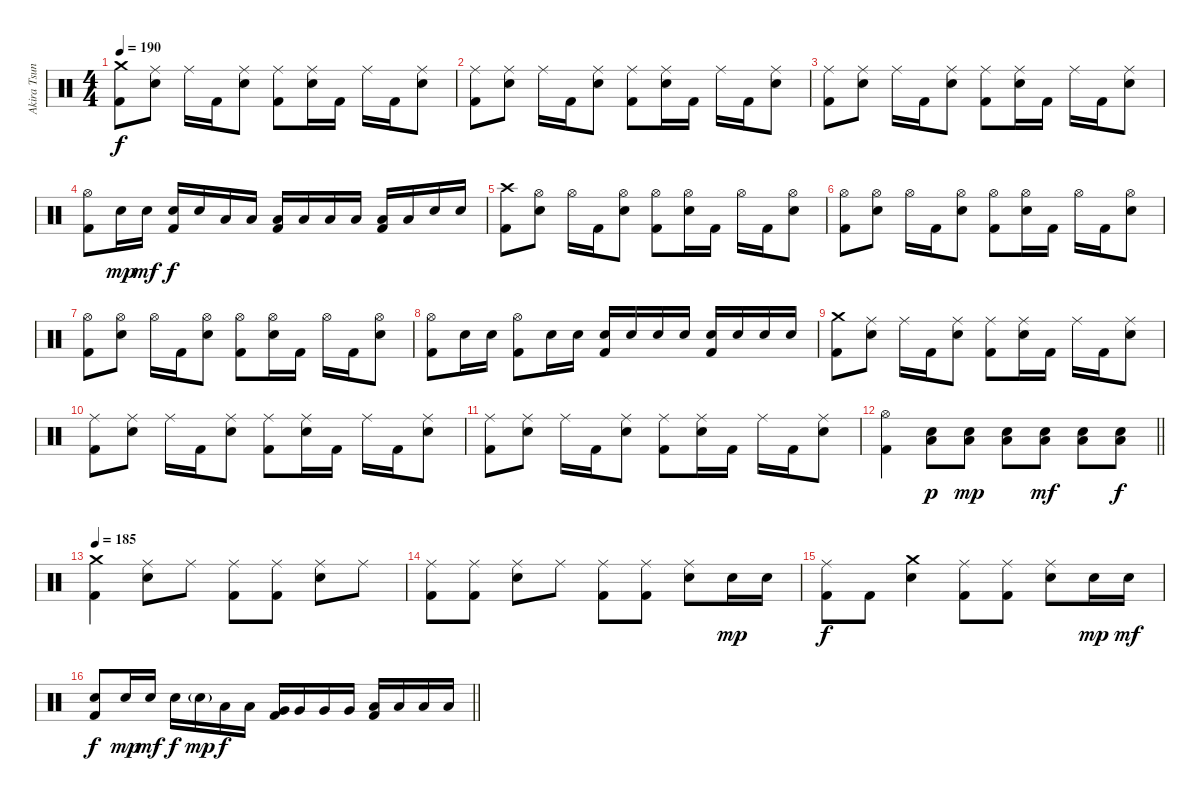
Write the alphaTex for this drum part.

\track ("Akira Tsuneoka" "Akira Tsun") {instrument percussion}
\staff {score}
\articulation defaults
\ts (4 4)
\tempo 190
\clef neutral
\ks c
("Crash medium (hit)" "Kick (hit) 2").8{dy f} ("Ride (middle)" "Electric Snare (hit)").8 "Ride (middle)".16 "Kick (hit) 2".16 ("Ride (middle)" "Electric Snare (hit)").8 ("Ride (middle)" "Kick (hit) 2").8 ("Ride (middle)" "Electric Snare (hit)").16 "Kick (hit) 2".16 "Ride (middle)".16 "Kick (hit) 2".16 ("Ride (middle)" "Electric Snare (hit)").8 |
("Ride (middle)" "Kick (hit) 2").8 ("Ride (middle)" "Electric Snare (hit)").8 "Ride (middle)".16 "Kick (hit) 2".16 ("Ride (middle)" "Electric Snare (hit)").8 ("Ride (middle)" "Kick (hit) 2").8 ("Ride (middle)" "Electric Snare (hit)").16 "Kick (hit) 2".16 "Ride (middle)".16 "Kick (hit) 2".16 ("Ride (middle)" "Electric Snare (hit)").8 |
("Ride (middle)" "Kick (hit) 2").8 ("Ride (middle)" "Electric Snare (hit)").8 "Ride (middle)".16 "Kick (hit) 2".16 ("Ride (middle)" "Electric Snare (hit)").8 ("Ride (middle)" "Kick (hit) 2").8 ("Ride (middle)" "Electric Snare (hit)").16 "Kick (hit) 2".16 "Ride (middle)".16 "Kick (hit) 2".16 ("Ride (middle)" "Electric Snare (hit)").8 |
("Hi-Hat (open)" "Kick (hit) 2").8 "Electric Snare (hit)".16{dy mp} "Electric Snare (hit)".16{dy mf} ("Electric Snare (hit)" "Kick (hit) 2").16{dy f} "Electric Snare (hit)".16 "Low Tom (hit)".16 "Low Tom (hit)".16 ("Low Tom (hit)" "Kick (hit) 2").16 "Low Tom (hit)".16 "Low Tom (hit)".16 "Low Tom (hit)".16 ("Low Floor Tom (hit)" "Kick (hit) 2").16 "Low Floor Tom (hit)".16 "Electric Snare (hit)".16 "Electric Snare (hit)".16 |
("Crash high (hit)" "Kick (hit) 2").8 ("Hi-Hat (open)" "Electric Snare (hit)").8 "Hi-Hat (open)".16 "Kick (hit) 2".16 ("Hi-Hat (open)" "Electric Snare (hit)").8 ("Hi-Hat (open)" "Kick (hit) 2").8 ("Hi-Hat (open)" "Electric Snare (hit)").16 "Kick (hit) 2".16 "Hi-Hat (open)".16 "Kick (hit) 2".16 ("Hi-Hat (open)" "Electric Snare (hit)").8 |
("Hi-Hat (open)" "Kick (hit) 2").8 ("Hi-Hat (open)" "Electric Snare (hit)").8 "Hi-Hat (open)".16 "Kick (hit) 2".16 ("Hi-Hat (open)" "Electric Snare (hit)").8 ("Hi-Hat (open)" "Kick (hit) 2").8 ("Hi-Hat (open)" "Electric Snare (hit)").16 "Kick (hit) 2".16 "Hi-Hat (open)".16 "Kick (hit) 2".16 ("Hi-Hat (open)" "Electric Snare (hit)").8 |
("Hi-Hat (open)" "Kick (hit) 2").8 ("Hi-Hat (open)" "Electric Snare (hit)").8 "Hi-Hat (open)".16 "Kick (hit) 2".16 ("Hi-Hat (open)" "Electric Snare (hit)").8 ("Hi-Hat (open)" "Kick (hit) 2").8 ("Hi-Hat (open)" "Electric Snare (hit)").16 "Kick (hit) 2".16 "Hi-Hat (open)".16 "Kick (hit) 2".16 ("Hi-Hat (open)" "Electric Snare (hit)").8 |
("Hi-Hat (open)" "Kick (hit) 2").8 "Electric Snare (hit)".16 "Electric Snare (hit)".16 ("Hi-Hat (open)" "Kick (hit) 2").8 "Electric Snare (hit)".16 "Electric Snare (hit)".16 ("Electric Snare (hit)" "Kick (hit) 2").16 "Electric Snare (hit)".16 "Electric Snare (hit)".16 "Electric Snare (hit)".16 ("Electric Snare (hit)" "Kick (hit) 2").16 "Electric Snare (hit)".16 "Electric Snare (hit)".16 "Electric Snare (hit)".16 |
("Crash medium (hit)" "Kick (hit) 2").8 ("Ride (middle)" "Electric Snare (hit)").8 "Ride (middle)".16 "Kick (hit) 2".16 ("Ride (middle)" "Electric Snare (hit)").8 ("Ride (middle)" "Kick (hit) 2").8 ("Ride (middle)" "Electric Snare (hit)").16 "Kick (hit) 2".16 "Ride (middle)".16 "Kick (hit) 2".16 ("Ride (middle)" "Electric Snare (hit)").8 |
("Ride (middle)" "Kick (hit) 2").8 ("Ride (middle)" "Electric Snare (hit)").8 "Ride (middle)".16 "Kick (hit) 2".16 ("Ride (middle)" "Electric Snare (hit)").8 ("Ride (middle)" "Kick (hit) 2").8 ("Ride (middle)" "Electric Snare (hit)").16 "Kick (hit) 2".16 "Ride (middle)".16 "Kick (hit) 2".16 ("Ride (middle)" "Electric Snare (hit)").8 |
("Ride (middle)" "Kick (hit) 2").8 ("Ride (middle)" "Electric Snare (hit)").8 "Ride (middle)".16 "Kick (hit) 2".16 ("Ride (middle)" "Electric Snare (hit)").8 ("Ride (middle)" "Kick (hit) 2").8 ("Ride (middle)" "Electric Snare (hit)").16 "Kick (hit) 2".16 "Ride (middle)".16 "Kick (hit) 2".16 ("Ride (middle)" "Electric Snare (hit)").8 |
\barLineRight lightlight
("Hi-Hat (open)" "Kick (hit) 2").4 ("Electric Snare (hit)" "Low Floor Tom (hit)").8{dy p} ("Electric Snare (hit)" "Low Floor Tom (hit)").8{dy mp} ("Electric Snare (hit)" "Low Floor Tom (hit)").8 ("Electric Snare (hit)" "Low Floor Tom (hit)").8{dy mf} ("Electric Snare (hit)" "Low Floor Tom (hit)").8 ("Electric Snare (hit)" "Low Floor Tom (hit)").8{dy f} |
\section ("" "")
\tempo 185
("Crash medium (hit)" "Kick (hit) 2").4 ("Ride (middle)" "Electric Snare (hit)").8 "Ride (middle)".8 ("Ride (middle)" "Kick (hit) 2").8 ("Ride (middle)" "Kick (hit) 2").8 ("Ride (middle)" "Electric Snare (hit)").8 "Ride (middle)".8 |
("Ride (middle)" "Kick (hit) 2").8 ("Ride (middle)" "Kick (hit) 2").8 ("Ride (middle)" "Electric Snare (hit)").8 "Ride (middle)".8 ("Ride (middle)" "Kick (hit) 2").8 ("Ride (middle)" "Kick (hit) 2").8 ("Ride (middle)" "Electric Snare (hit)").8 "Electric Snare (hit)".16{dy mp} "Electric Snare (hit)".16 |
("Ride (middle)" "Kick (hit) 2").8{dy f} "Kick (hit) 2".8 ("Crash medium (hit)" "Electric Snare (hit)").4 ("Ride (middle)" "Kick (hit) 2").8 ("Ride (middle)" "Kick (hit) 2").8 ("Ride (middle)" "Electric Snare (hit)").8 "Electric Snare (hit)".16{dy mp} "Electric Snare (hit)".16{dy mf} |
\barLineRight lightlight
("Electric Snare (hit)" "Kick (hit) 2").8{dy f} "Electric Snare (hit)".16{dy mp} "Electric Snare (hit)".16{dy mf} "Electric Snare (hit)".16{dy f} "Electric Snare (hit)"{g}.16{dy mp} "Low Tom (hit)".16{dy f} "Low Tom (hit)".16 ("Very Low Tom (hit)" "Kick (hit) 2").16 "Very Low Tom (hit)".16 "Very Low Tom (hit)".16 "Very Low Tom (hit)".16 ("Low Floor Tom (hit)" "Kick (hit) 2").16 "Low Floor Tom (hit)".16 "Low Floor Tom (hit)".16 "Low Floor Tom (hit)".16
